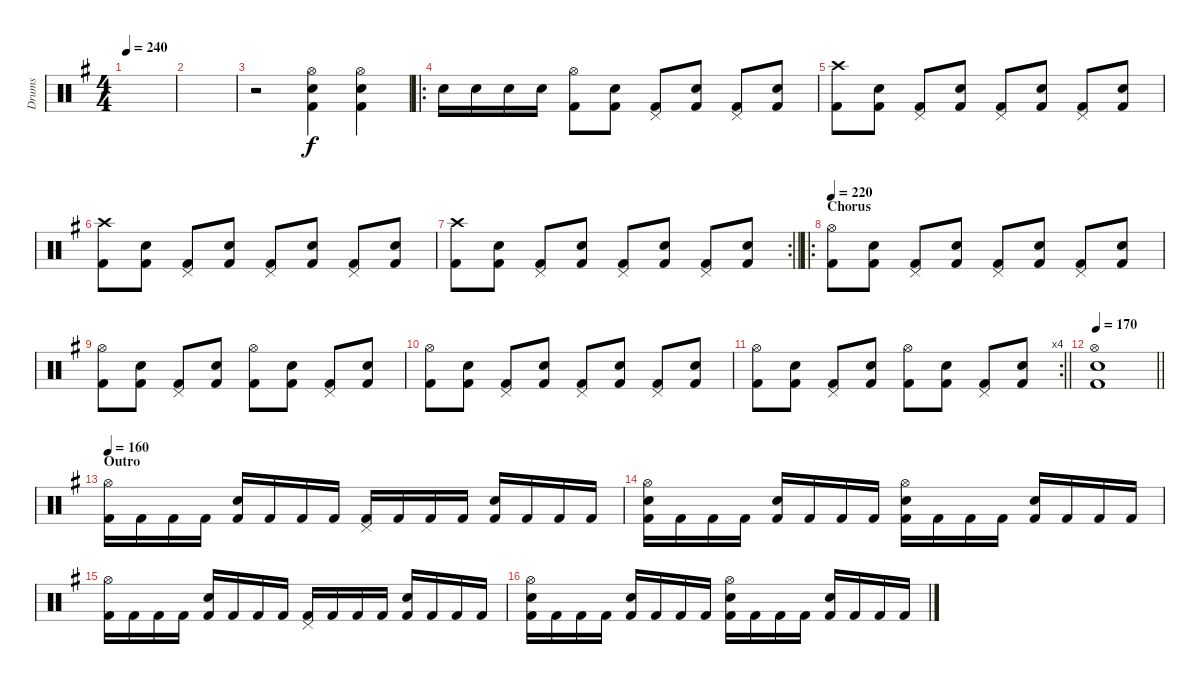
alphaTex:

\track ("Drums" "Drums") {instrument percussion}
\staff {score}
\articulation defaults
\ts (4 4)
\tempo 240
\clef neutral
\ks g
|
|
r.2 ("Hi-Hat (open)" "Snare (hit) 2" "Kick (hit) 2").4 ("Hi-Hat (open)" "Snare (hit) 2" "Kick (hit) 2").4 |
\ro "Snare (hit) 2".16 "Snare (hit) 2".16 "Snare (hit) 2".16 "Snare (hit) 2".16
("Hi-Hat (open)" "Kick (hit) 2").8 ("Snare (hit) 2" "Kick (hit) 2").8 ("Pedal Hi-Hat (hit)" "Kick (hit) 2").8 ("Snare (hit) 2" "Kick (hit) 2").8 ("Pedal Hi-Hat (hit)" "Kick (hit) 2").8 ("Snare (hit) 2" "Kick (hit) 2").8 |
("Crash high (hit)" "Kick (hit) 2").8 ("Snare (hit) 2" "Kick (hit) 2").8 ("Pedal Hi-Hat (hit)" "Kick (hit) 2").8 ("Snare (hit) 2" "Kick (hit) 2").8 ("Pedal Hi-Hat (hit)" "Kick (hit) 2").8 ("Snare (hit) 2" "Kick (hit) 2").8 ("Pedal Hi-Hat (hit)" "Kick (hit) 2").8 ("Snare (hit) 2" "Kick (hit) 2").8 |
("Crash high (hit)" "Kick (hit) 2").8 ("Snare (hit) 2" "Kick (hit) 2").8 ("Pedal Hi-Hat (hit)" "Kick (hit) 2").8 ("Snare (hit) 2" "Kick (hit) 2").8 ("Pedal Hi-Hat (hit)" "Kick (hit) 2").8 ("Snare (hit) 2" "Kick (hit) 2").8 ("Pedal Hi-Hat (hit)" "Kick (hit) 2").8 ("Snare (hit) 2" "Kick (hit) 2").8 |
\rc 2
\barLineRight lightlight
("Crash high (hit)" "Kick (hit) 2").8 ("Snare (hit) 2" "Kick (hit) 2").8 ("Pedal Hi-Hat (hit)" "Kick (hit) 2").8 ("Snare (hit) 2" "Kick (hit) 2").8 ("Pedal Hi-Hat (hit)" "Kick (hit) 2").8 ("Snare (hit) 2" "Kick (hit) 2").8 ("Pedal Hi-Hat (hit)" "Kick (hit) 2").8 ("Snare (hit) 2" "Kick (hit) 2").8 |
\ro
\section ("" "Chorus")
\tempo 220
("Hi-Hat (open)" "Kick (hit) 2").8 ("Snare (hit) 2" "Kick (hit) 2").8 ("Pedal Hi-Hat (hit)" "Kick (hit) 2").8 ("Snare (hit) 2" "Kick (hit) 2").8 ("Pedal Hi-Hat (hit)" "Kick (hit) 2").8 ("Snare (hit) 2" "Kick (hit) 2").8 ("Pedal Hi-Hat (hit)" "Kick (hit) 2").8 ("Snare (hit) 2" "Kick (hit) 2").8 |
("Hi-Hat (open)" "Kick (hit) 2").8 ("Snare (hit) 2" "Kick (hit) 2").8 ("Pedal Hi-Hat (hit)" "Kick (hit) 2").8 ("Snare (hit) 2" "Kick (hit) 2").8 ("Hi-Hat (open)" "Kick (hit) 2").8 ("Snare (hit) 2" "Kick (hit) 2").8 ("Pedal Hi-Hat (hit)" "Kick (hit) 2").8 ("Snare (hit) 2" "Kick (hit) 2").8 |
("Hi-Hat (open)" "Kick (hit) 2").8 ("Snare (hit) 2" "Kick (hit) 2").8 ("Pedal Hi-Hat (hit)" "Kick (hit) 2").8 ("Snare (hit) 2" "Kick (hit) 2").8 ("Pedal Hi-Hat (hit)" "Kick (hit) 2").8 ("Snare (hit) 2" "Kick (hit) 2").8 ("Pedal Hi-Hat (hit)" "Kick (hit) 2").8 ("Snare (hit) 2" "Kick (hit) 2").8 |
\rc 4
\barLineRight lightlight
("Hi-Hat (open)" "Kick (hit) 2").8 ("Snare (hit) 2" "Kick (hit) 2").8 ("Pedal Hi-Hat (hit)" "Kick (hit) 2").8 ("Snare (hit) 2" "Kick (hit) 2").8 ("Hi-Hat (open)" "Kick (hit) 2").8 ("Snare (hit) 2" "Kick (hit) 2").8 ("Pedal Hi-Hat (hit)" "Kick (hit) 2").8 ("Snare (hit) 2" "Kick (hit) 2").8 |
\tempo 170
\barLineRight lightlight
("Hi-Hat (open)" "Snare (hit) 2" "Kick (hit) 2").1 |
\section ("" "Outro")
\tempo 160
("Hi-Hat (open)" "Kick (hit) 2").16 "Kick (hit) 2".16 "Kick (hit) 2".16 "Kick (hit) 2".16 ("Snare (hit) 2" "Kick (hit) 2").16 "Kick (hit) 2".16 "Kick (hit) 2".16 "Kick (hit) 2".16 ("Pedal Hi-Hat (hit)" "Kick (hit) 2").16 "Kick (hit) 2".16 "Kick (hit) 2".16 "Kick (hit) 2".16 ("Snare (hit) 2" "Kick (hit) 2").16 "Kick (hit) 2".16 "Kick (hit) 2".16 "Kick (hit) 2".16 |
("Hi-Hat (open)" "Snare (hit) 2" "Kick (hit) 2").16 "Kick (hit) 2".16 "Kick (hit) 2".16 "Kick (hit) 2".16 ("Snare (hit) 2" "Kick (hit) 2").16 "Kick (hit) 2".16 "Kick (hit) 2".16 "Kick (hit) 2".16 ("Hi-Hat (open)" "Snare (hit) 2" "Kick (hit) 2").16 "Kick (hit) 2".16 "Kick (hit) 2".16 "Kick (hit) 2".16 ("Snare (hit) 2" "Kick (hit) 2").16 "Kick (hit) 2".16 "Kick (hit) 2".16 "Kick (hit) 2".16 |
("Hi-Hat (open)" "Kick (hit) 2").16 "Kick (hit) 2".16 "Kick (hit) 2".16 "Kick (hit) 2".16 ("Snare (hit) 2" "Kick (hit) 2").16 "Kick (hit) 2".16 "Kick (hit) 2".16 "Kick (hit) 2".16 ("Pedal Hi-Hat (hit)" "Kick (hit) 2").16 "Kick (hit) 2".16 "Kick (hit) 2".16 "Kick (hit) 2".16 ("Snare (hit) 2" "Kick (hit) 2").16 "Kick (hit) 2".16 "Kick (hit) 2".16 "Kick (hit) 2".16 |
("Hi-Hat (open)" "Snare (hit) 2" "Kick (hit) 2").16 "Kick (hit) 2".16 "Kick (hit) 2".16 "Kick (hit) 2".16 ("Snare (hit) 2" "Kick (hit) 2").16 "Kick (hit) 2".16 "Kick (hit) 2".16 "Kick (hit) 2".16 ("Hi-Hat (open)" "Snare (hit) 2" "Kick (hit) 2").16 "Kick (hit) 2".16 "Kick (hit) 2".16 "Kick (hit) 2".16 ("Snare (hit) 2" "Kick (hit) 2").16 "Kick (hit) 2".16 "Kick (hit) 2".16 "Kick (hit) 2".16
